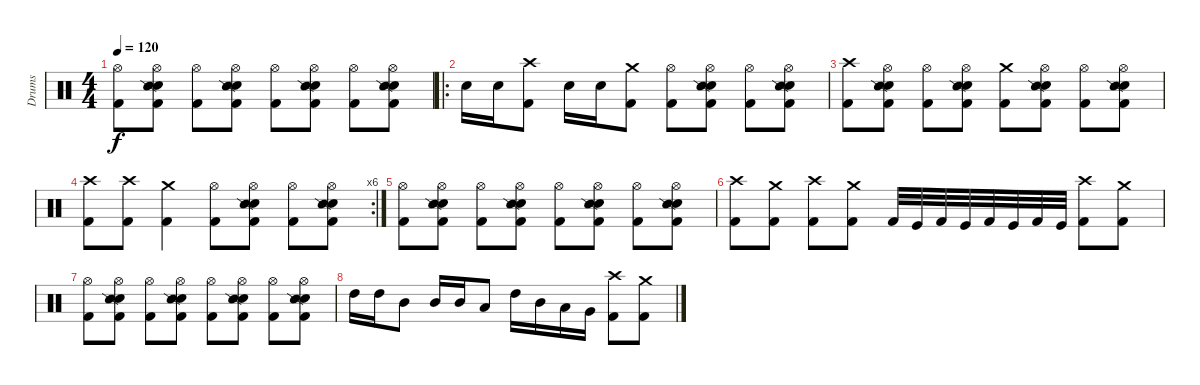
\track ("Drums" "Drums") {instrument percussion}
\staff {score}
\articulation defaults
\ts (4 4)
\tempo 120
\clef neutral
\ks c
("Hi-Hat (open)" "Kick (hit) 2").8{dy f} ("Hi-Hat (open)" "Electric Snare (hit)" "Snare (side stick) 2" "Kick (hit) 2").8 ("Hi-Hat (open)" "Kick (hit) 2").8 ("Hi-Hat (open)" "Electric Snare (hit)" "Snare (side stick) 2" "Kick (hit) 2").8 ("Hi-Hat (open)" "Kick (hit) 2").8 ("Hi-Hat (open)" "Electric Snare (hit)" "Snare (side stick) 2" "Kick (hit) 2").8 ("Hi-Hat (open)" "Kick (hit) 2").8 ("Hi-Hat (open)" "Electric Snare (hit)" "Snare (side stick) 2" "Kick (hit) 2").8 |
\ro "Electric Snare (hit)".16 "Electric Snare (hit)".16
("Crash high (hit)" "Kick (hit) 2").8 "Electric Snare (hit)".16 "Electric Snare (hit)".16 ("Crash medium (hit)" "Kick (hit) 2").8 ("Hi-Hat (open)" "Kick (hit) 2").8 ("Hi-Hat (open)" "Electric Snare (hit)" "Snare (side stick) 2" "Kick (hit) 2").8 ("Hi-Hat (open)" "Kick (hit) 2").8 ("Hi-Hat (open)" "Electric Snare (hit)" "Snare (side stick) 2" "Kick (hit) 2").8 |
("Crash high (hit)" "Kick (hit) 2").8 ("Hi-Hat (open)" "Electric Snare (hit)" "Snare (side stick) 2" "Kick (hit) 2").8 ("Hi-Hat (open)" "Kick (hit) 2").8 ("Hi-Hat (open)" "Electric Snare (hit)" "Snare (side stick) 2" "Kick (hit) 2").8 ("Crash medium (hit)" "Kick (hit) 2").8 ("Hi-Hat (open)" "Electric Snare (hit)" "Snare (side stick) 2" "Kick (hit) 2").8 ("Hi-Hat (open)" "Kick (hit) 2").8 ("Hi-Hat (open)" "Electric Snare (hit)" "Snare (side stick) 2" "Kick (hit) 2").8 |
\rc 6
("Crash high (hit)" "Kick (hit) 2").8 ("Crash high (hit)" "Kick (hit) 2").8 ("Crash medium (hit)" "Kick (hit) 2").4 ("Hi-Hat (open)" "Kick (hit) 2").8 ("Hi-Hat (open)" "Electric Snare (hit)" "Snare (side stick) 2" "Kick (hit) 2").8 ("Hi-Hat (open)" "Kick (hit) 2").8 ("Hi-Hat (open)" "Electric Snare (hit)" "Snare (side stick) 2" "Kick (hit) 2").8 |
("Hi-Hat (open)" "Kick (hit) 2").8 ("Hi-Hat (open)" "Electric Snare (hit)" "Snare (side stick) 2" "Kick (hit) 2").8 ("Hi-Hat (open)" "Kick (hit) 2").8 ("Hi-Hat (open)" "Electric Snare (hit)" "Snare (side stick) 2" "Kick (hit) 2").8 ("Hi-Hat (open)" "Kick (hit) 2").8 ("Hi-Hat (open)" "Electric Snare (hit)" "Snare (side stick) 2" "Kick (hit) 2").8 ("Hi-Hat (open)" "Kick (hit) 2").8 ("Hi-Hat (open)" "Electric Snare (hit)" "Snare (side stick) 2" "Kick (hit) 2").8 |
("Crash high (hit)" "Kick (hit) 2").8 ("Crash medium (hit)" "Kick (hit) 2").8 ("Crash high (hit)" "Kick (hit) 2").8 ("Crash medium (hit)" "Kick (hit) 2").8 "Kick (hit) 2".32 "Kick (hit)".32 "Kick (hit) 2".32 "Kick (hit)".32 "Kick (hit) 2".32 "Kick (hit)".32 "Kick (hit) 2".32 "Kick (hit)".32 ("Crash high (hit)" "Kick (hit) 2").8 ("Crash medium (hit)" "Kick (hit) 2").8 |
("Hi-Hat (open)" "Kick (hit) 2").8 ("Hi-Hat (open)" "Electric Snare (hit)" "Snare (side stick) 2" "Kick (hit) 2").8 ("Hi-Hat (open)" "Kick (hit) 2").8 ("Hi-Hat (open)" "Electric Snare (hit)" "Snare (side stick) 2" "Kick (hit) 2").8 ("Hi-Hat (open)" "Kick (hit) 2").8 ("Hi-Hat (open)" "Electric Snare (hit)" "Snare (side stick) 2" "Kick (hit) 2").8 ("Hi-Hat (open)" "Kick (hit) 2").8 ("Hi-Hat (open)" "Electric Snare (hit)" "Snare (side stick) 2" "Kick (hit) 2").8 |
"High Tom (hit)".16 "High Tom (hit)".16 "Mid Tom (hit)".8 "Mid Tom (hit)".16 "Mid Tom (hit)".16 "Low Tom (hit)".8 "High Tom (hit)".16 "Mid Tom (hit)".16 "Low Tom (hit)".16 "Very Low Tom (hit)".16 ("Crash high (hit)" "Kick (hit) 2").8 ("Crash medium (hit)" "Kick (hit) 2").8
